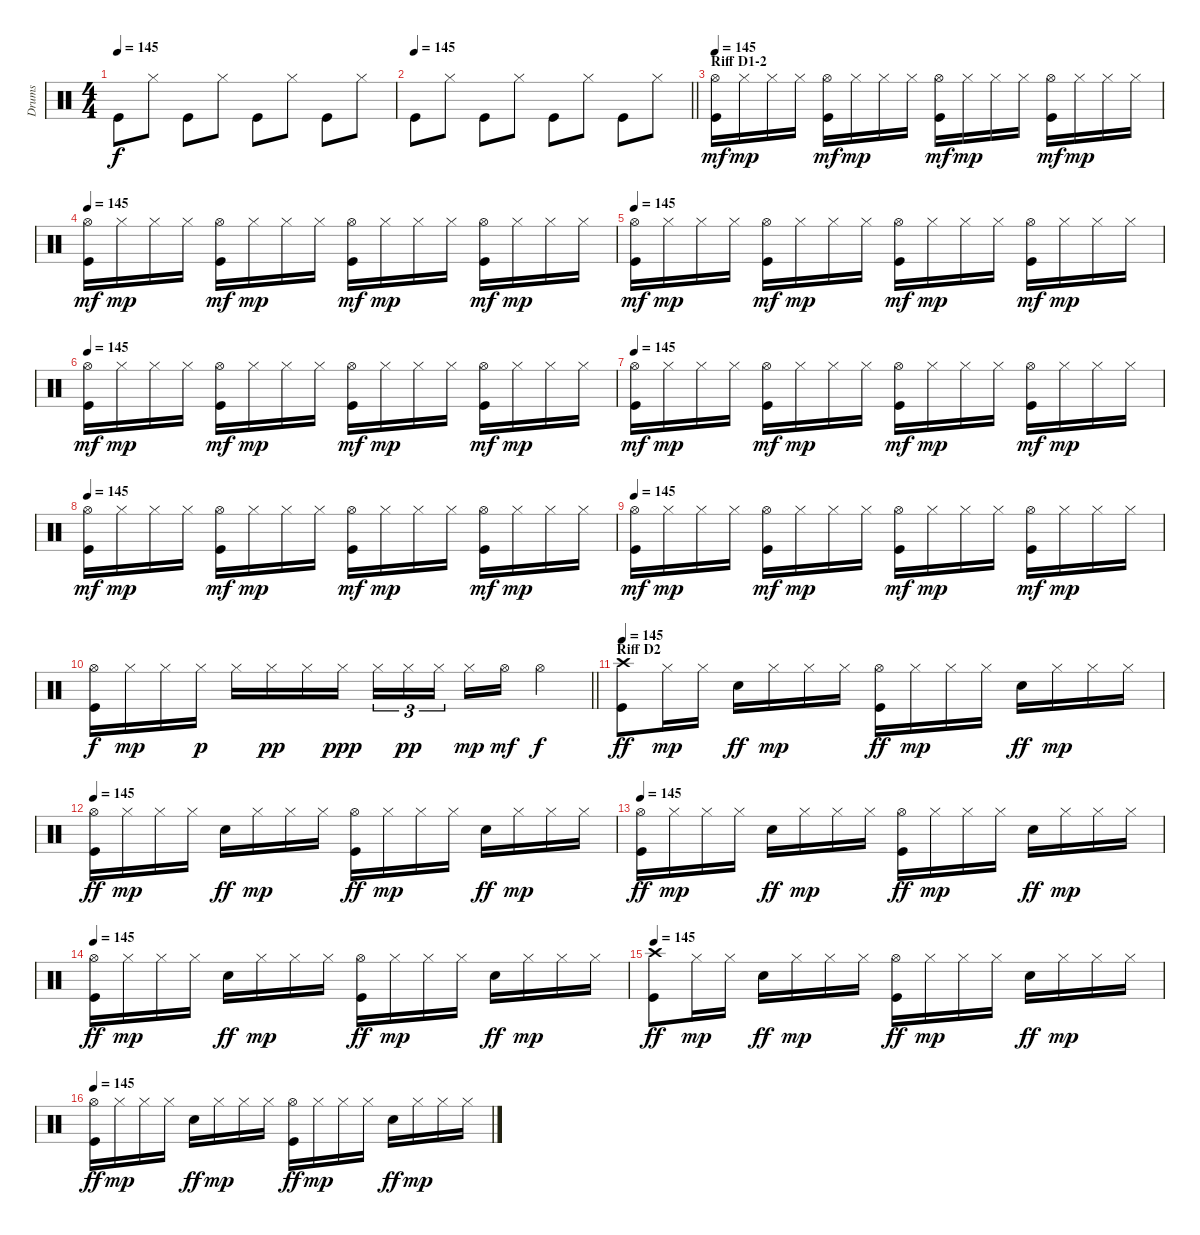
\track ("Drums" "Drums") {instrument percussion}
\staff {score}
\articulation defaults
\ts (4 4)
\tempo 145
\clef neutral
\ks c "Kick (hit)".8{dy f} "Hi-Hat (closed)".8 "Kick (hit)".8 "Hi-Hat (closed)".8 "Kick (hit)".8 "Hi-Hat (closed)".8 "Kick (hit)".8 "Hi-Hat (closed)".8
|
\tempo 145
\barLineRight lightlight "Kick (hit)".8 "Hi-Hat (closed)".8 "Kick (hit)".8 "Hi-Hat (closed)".8 "Kick (hit)".8 "Hi-Hat (closed)".8 "Kick (hit)".8 "Hi-Hat (closed)".8
|
\section ("" "Riff D1-2")
\tempo 145
("Hi-Hat (open)" "Kick (hit)").16{dy mf} "Hi-Hat (closed)".16{dy mp} "Hi-Hat (closed)".16 "Hi-Hat (closed)".16 ("Hi-Hat (open)" "Kick (hit)").16{dy mf} "Hi-Hat (closed)".16{dy mp} "Hi-Hat (closed)".16 "Hi-Hat (closed)".16 ("Hi-Hat (open)" "Kick (hit)").16{dy mf} "Hi-Hat (closed)".16{dy mp} "Hi-Hat (closed)".16 "Hi-Hat (closed)".16 ("Hi-Hat (open)" "Kick (hit)").16{dy mf} "Hi-Hat (closed)".16{dy mp} "Hi-Hat (closed)".16 "Hi-Hat (closed)".16 |
\tempo 145
("Hi-Hat (open)" "Kick (hit)").16{dy mf} "Hi-Hat (closed)".16{dy mp} "Hi-Hat (closed)".16 "Hi-Hat (closed)".16 ("Hi-Hat (open)" "Kick (hit)").16{dy mf} "Hi-Hat (closed)".16{dy mp} "Hi-Hat (closed)".16 "Hi-Hat (closed)".16 ("Hi-Hat (open)" "Kick (hit)").16{dy mf} "Hi-Hat (closed)".16{dy mp} "Hi-Hat (closed)".16 "Hi-Hat (closed)".16 ("Hi-Hat (open)" "Kick (hit)").16{dy mf} "Hi-Hat (closed)".16{dy mp} "Hi-Hat (closed)".16 "Hi-Hat (closed)".16 |
\tempo 145
("Hi-Hat (open)" "Kick (hit)").16{dy mf} "Hi-Hat (closed)".16{dy mp} "Hi-Hat (closed)".16 "Hi-Hat (closed)".16 ("Hi-Hat (open)" "Kick (hit)").16{dy mf} "Hi-Hat (closed)".16{dy mp} "Hi-Hat (closed)".16 "Hi-Hat (closed)".16 ("Hi-Hat (open)" "Kick (hit)").16{dy mf} "Hi-Hat (closed)".16{dy mp} "Hi-Hat (closed)".16 "Hi-Hat (closed)".16 ("Hi-Hat (open)" "Kick (hit)").16{dy mf} "Hi-Hat (closed)".16{dy mp} "Hi-Hat (closed)".16 "Hi-Hat (closed)".16 |
\tempo 145
("Hi-Hat (open)" "Kick (hit)").16{dy mf} "Hi-Hat (closed)".16{dy mp} "Hi-Hat (closed)".16 "Hi-Hat (closed)".16 ("Hi-Hat (open)" "Kick (hit)").16{dy mf} "Hi-Hat (closed)".16{dy mp} "Hi-Hat (closed)".16 "Hi-Hat (closed)".16 ("Hi-Hat (open)" "Kick (hit)").16{dy mf} "Hi-Hat (closed)".16{dy mp} "Hi-Hat (closed)".16 "Hi-Hat (closed)".16 ("Hi-Hat (open)" "Kick (hit)").16{dy mf} "Hi-Hat (closed)".16{dy mp} "Hi-Hat (closed)".16 "Hi-Hat (closed)".16 |
\tempo 145
("Hi-Hat (open)" "Kick (hit)").16{dy mf} "Hi-Hat (closed)".16{dy mp} "Hi-Hat (closed)".16 "Hi-Hat (closed)".16 ("Hi-Hat (open)" "Kick (hit)").16{dy mf} "Hi-Hat (closed)".16{dy mp} "Hi-Hat (closed)".16 "Hi-Hat (closed)".16 ("Hi-Hat (open)" "Kick (hit)").16{dy mf} "Hi-Hat (closed)".16{dy mp} "Hi-Hat (closed)".16 "Hi-Hat (closed)".16 ("Hi-Hat (open)" "Kick (hit)").16{dy mf} "Hi-Hat (closed)".16{dy mp} "Hi-Hat (closed)".16 "Hi-Hat (closed)".16 |
\tempo 145
("Hi-Hat (open)" "Kick (hit)").16{dy mf} "Hi-Hat (closed)".16{dy mp} "Hi-Hat (closed)".16 "Hi-Hat (closed)".16 ("Hi-Hat (open)" "Kick (hit)").16{dy mf} "Hi-Hat (closed)".16{dy mp} "Hi-Hat (closed)".16 "Hi-Hat (closed)".16 ("Hi-Hat (open)" "Kick (hit)").16{dy mf} "Hi-Hat (closed)".16{dy mp} "Hi-Hat (closed)".16 "Hi-Hat (closed)".16 ("Hi-Hat (open)" "Kick (hit)").16{dy mf} "Hi-Hat (closed)".16{dy mp} "Hi-Hat (closed)".16 "Hi-Hat (closed)".16 |
\tempo 145
("Hi-Hat (open)" "Kick (hit)").16{dy mf} "Hi-Hat (closed)".16{dy mp} "Hi-Hat (closed)".16 "Hi-Hat (closed)".16 ("Hi-Hat (open)" "Kick (hit)").16{dy mf} "Hi-Hat (closed)".16{dy mp} "Hi-Hat (closed)".16 "Hi-Hat (closed)".16 ("Hi-Hat (open)" "Kick (hit)").16{dy mf} "Hi-Hat (closed)".16{dy mp} "Hi-Hat (closed)".16 "Hi-Hat (closed)".16 ("Hi-Hat (open)" "Kick (hit)").16{dy mf} "Hi-Hat (closed)".16{dy mp} "Hi-Hat (closed)".16 "Hi-Hat (closed)".16 |
\barLineRight lightlight
("Hi-Hat (open)" "Kick (hit)").16{dy f} "Hi-Hat (closed)".16{dy mp} "Hi-Hat (closed)".16 "Hi-Hat (closed)".16{dy p} "Hi-Hat (closed)".16 "Hi-Hat (closed)".16{dy pp} "Hi-Hat (closed)".16 "Hi-Hat (closed)".16{dy ppp} "Hi-Hat (closed)".16{tu (3 2)} "Hi-Hat (closed)".16{tu (3 2) dy pp} "Hi-Hat (closed)".16{tu (3 2)} "Hi-Hat (closed)".16{dy mp} "Hi-Hat (open)".16{dy mf} "Hi-Hat (open)".4{dy f} |
\section ("" "Riff D2")
\tempo 145
("Crash high (hit)" "Kick (hit)").8{dy ff} "Hi-Hat (closed)".16{dy mp} "Hi-Hat (closed)".16 "Snare (hit) 2".16{dy ff} "Hi-Hat (closed)".16{dy mp} "Hi-Hat (closed)".16 "Hi-Hat (closed)".16 ("Hi-Hat (open)" "Kick (hit)").16{dy ff} "Hi-Hat (closed)".16{dy mp} "Hi-Hat (closed)".16 "Hi-Hat (closed)".16 "Snare (hit) 2".16{dy ff} "Hi-Hat (closed)".16{dy mp} "Hi-Hat (closed)".16 "Hi-Hat (closed)".16 |
\tempo 145
("Hi-Hat (open)" "Kick (hit)").16{dy ff} "Hi-Hat (closed)".16{dy mp} "Hi-Hat (closed)".16 "Hi-Hat (closed)".16 "Snare (hit) 2".16{dy ff} "Hi-Hat (closed)".16{dy mp} "Hi-Hat (closed)".16 "Hi-Hat (closed)".16 ("Hi-Hat (open)" "Kick (hit)").16{dy ff} "Hi-Hat (closed)".16{dy mp} "Hi-Hat (closed)".16 "Hi-Hat (closed)".16 "Snare (hit) 2".16{dy ff} "Hi-Hat (closed)".16{dy mp} "Hi-Hat (closed)".16 "Hi-Hat (closed)".16 |
\tempo 145
("Hi-Hat (open)" "Kick (hit)").16{dy ff} "Hi-Hat (closed)".16{dy mp} "Hi-Hat (closed)".16 "Hi-Hat (closed)".16 "Snare (hit) 2".16{dy ff} "Hi-Hat (closed)".16{dy mp} "Hi-Hat (closed)".16 "Hi-Hat (closed)".16 ("Hi-Hat (open)" "Kick (hit)").16{dy ff} "Hi-Hat (closed)".16{dy mp} "Hi-Hat (closed)".16 "Hi-Hat (closed)".16 "Snare (hit) 2".16{dy ff} "Hi-Hat (closed)".16{dy mp} "Hi-Hat (closed)".16 "Hi-Hat (closed)".16 |
\tempo 145
("Hi-Hat (open)" "Kick (hit)").16{dy ff} "Hi-Hat (closed)".16{dy mp} "Hi-Hat (closed)".16 "Hi-Hat (closed)".16 "Snare (hit) 2".16{dy ff} "Hi-Hat (closed)".16{dy mp} "Hi-Hat (closed)".16 "Hi-Hat (closed)".16 ("Hi-Hat (open)" "Kick (hit)").16{dy ff} "Hi-Hat (closed)".16{dy mp} "Hi-Hat (closed)".16 "Hi-Hat (closed)".16 "Snare (hit) 2".16{dy ff} "Hi-Hat (closed)".16{dy mp} "Hi-Hat (closed)".16 "Hi-Hat (closed)".16 |
\tempo 145
("Crash high (hit)" "Kick (hit)").8{dy ff} "Hi-Hat (closed)".16{dy mp} "Hi-Hat (closed)".16 "Snare (hit) 2".16{dy ff} "Hi-Hat (closed)".16{dy mp} "Hi-Hat (closed)".16 "Hi-Hat (closed)".16 ("Hi-Hat (open)" "Kick (hit)").16{dy ff} "Hi-Hat (closed)".16{dy mp} "Hi-Hat (closed)".16 "Hi-Hat (closed)".16 "Snare (hit) 2".16{dy ff} "Hi-Hat (closed)".16{dy mp} "Hi-Hat (closed)".16 "Hi-Hat (closed)".16 |
\tempo 145
("Hi-Hat (open)" "Kick (hit)").16{dy ff} "Hi-Hat (closed)".16{dy mp} "Hi-Hat (closed)".16 "Hi-Hat (closed)".16 "Snare (hit) 2".16{dy ff} "Hi-Hat (closed)".16{dy mp} "Hi-Hat (closed)".16 "Hi-Hat (closed)".16 ("Hi-Hat (open)" "Kick (hit)").16{dy ff} "Hi-Hat (closed)".16{dy mp} "Hi-Hat (closed)".16 "Hi-Hat (closed)".16 "Snare (hit) 2".16{dy ff} "Hi-Hat (closed)".16{dy mp} "Hi-Hat (closed)".16 "Hi-Hat (closed)".16
